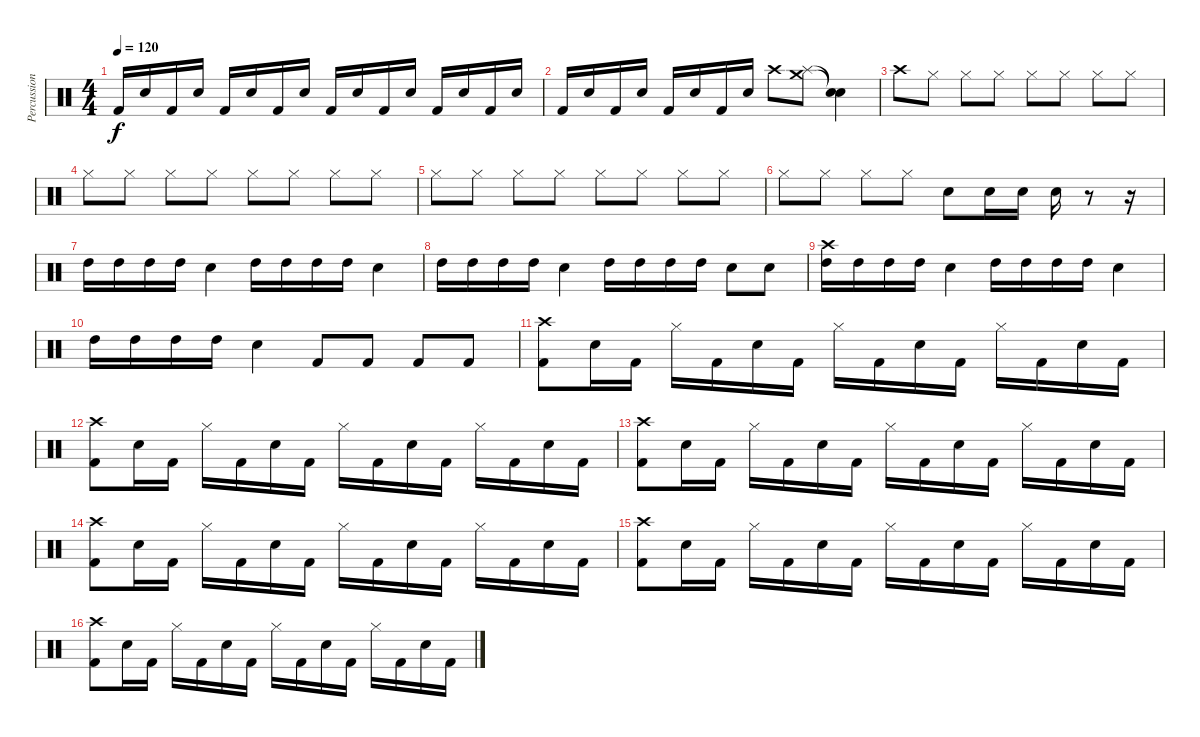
\track ("Percussion" "Percussion") {instrument percussion}
\staff {score}
\articulation defaults
\ts (4 4)
\tempo 120
\clef neutral
\ks c "Kick (hit) 2".16{dy f} "Snare (hit) 2".16 "Kick (hit) 2".16 "Snare (hit) 2".16 "Kick (hit) 2".16 "Snare (hit) 2".16 "Kick (hit) 2".16 "Snare (hit) 2".16 "Kick (hit) 2".16 "Snare (hit) 2".16 "Kick (hit) 2".16 "Snare (hit) 2".16 "Kick (hit) 2".16 "Snare (hit) 2".16 "Kick (hit) 2".16 "Snare (hit) 2".16
|
"Kick (hit) 2".16 "Snare (hit) 2".16 "Kick (hit) 2".16 "Snare (hit) 2".16 "Kick (hit) 2".16 "Snare (hit) 2".16 "Kick (hit) 2".16 "Snare (hit) 2".16 "Crash high (hit)".8 ("Splash (hit)" "Crash medium (hit)").8 ("Snare (hit)"{t} "Snare (hit)"{t}).4 |
"Crash high (hit)".8 "Hi-Hat (closed)".8 "Hi-Hat (closed)".8 "Hi-Hat (closed)".8 "Hi-Hat (closed)".8 "Hi-Hat (closed)".8 "Hi-Hat (closed)".8 "Hi-Hat (closed)".8 |
"Hi-Hat (closed)".8 "Hi-Hat (closed)".8 "Hi-Hat (closed)".8 "Hi-Hat (closed)".8 "Hi-Hat (closed)".8 "Hi-Hat (closed)".8 "Hi-Hat (closed)".8 "Hi-Hat (closed)".8 |
"Hi-Hat (closed)".8 "Hi-Hat (closed)".8 "Hi-Hat (closed)".8 "Hi-Hat (closed)".8 "Hi-Hat (closed)".8 "Hi-Hat (closed)".8 "Hi-Hat (closed)".8 "Hi-Hat (closed)".8 |
"Hi-Hat (closed)".8 "Hi-Hat (closed)".8 "Hi-Hat (closed)".8 "Hi-Hat (closed)".8 "Snare (hit) 2".8 "Snare (hit) 2".16 "Snare (hit) 2".16 "Snare (hit) 2".16 r.8 r.16 |
"High Tom (hit)".16 "High Tom (hit)".16 "High Tom (hit)".16 "High Tom (hit)".16 "Snare (hit) 2".4 "High Tom (hit)".16 "High Tom (hit)".16 "High Tom (hit)".16 "High Tom (hit)".16 "Snare (hit) 2".4 |
"High Tom (hit)".16 "High Tom (hit)".16 "High Tom (hit)".16 "High Tom (hit)".16 "Snare (hit) 2".4 "High Tom (hit)".16 "High Tom (hit)".16 "High Tom (hit)".16 "High Tom (hit)".16 "Snare (hit) 2".8 "Snare (hit) 2".8 |
("Crash high (hit)" "High Tom (hit)").16 "High Tom (hit)".16 "High Tom (hit)".16 "High Tom (hit)".16 "Snare (hit) 2".4 "High Tom (hit)".16 "High Tom (hit)".16 "High Tom (hit)".16 "High Tom (hit)".16 "Snare (hit) 2".4 |
"High Tom (hit)".16 "High Tom (hit)".16 "High Tom (hit)".16 "High Tom (hit)".16 "Snare (hit) 2".4 "Kick (hit) 2".8 "Kick (hit) 2".8 "Kick (hit) 2".8 "Kick (hit) 2".8 |
("Crash high (hit)" "Kick (hit) 2").8 "Snare (hit) 2".16 "Kick (hit) 2".16 "Hi-Hat (closed)".16 "Kick (hit) 2".16 "Snare (hit) 2".16 "Kick (hit) 2".16 "Hi-Hat (closed)".16 "Kick (hit) 2".16 "Snare (hit) 2".16 "Kick (hit) 2".16 "Hi-Hat (closed)".16 "Kick (hit) 2".16 "Snare (hit) 2".16 "Kick (hit) 2".16 |
("Crash high (hit)" "Kick (hit) 2").8 "Snare (hit) 2".16 "Kick (hit) 2".16 "Hi-Hat (closed)".16 "Kick (hit) 2".16 "Snare (hit) 2".16 "Kick (hit) 2".16 "Hi-Hat (closed)".16 "Kick (hit) 2".16 "Snare (hit) 2".16 "Kick (hit) 2".16 "Hi-Hat (closed)".16 "Kick (hit) 2".16 "Snare (hit) 2".16 "Kick (hit) 2".16 |
("Crash high (hit)" "Kick (hit) 2").8 "Snare (hit) 2".16 "Kick (hit) 2".16 "Hi-Hat (closed)".16 "Kick (hit) 2".16 "Snare (hit) 2".16 "Kick (hit) 2".16 "Hi-Hat (closed)".16 "Kick (hit) 2".16 "Snare (hit) 2".16 "Kick (hit) 2".16 "Hi-Hat (closed)".16 "Kick (hit) 2".16 "Snare (hit) 2".16 "Kick (hit) 2".16 |
("Crash high (hit)" "Kick (hit) 2").8 "Snare (hit) 2".16 "Kick (hit) 2".16 "Hi-Hat (closed)".16 "Kick (hit) 2".16 "Snare (hit) 2".16 "Kick (hit) 2".16 "Hi-Hat (closed)".16 "Kick (hit) 2".16 "Snare (hit) 2".16 "Kick (hit) 2".16 "Hi-Hat (closed)".16 "Kick (hit) 2".16 "Snare (hit) 2".16 "Kick (hit) 2".16 |
("Crash high (hit)" "Kick (hit) 2").8 "Snare (hit) 2".16 "Kick (hit) 2".16 "Hi-Hat (closed)".16 "Kick (hit) 2".16 "Snare (hit) 2".16 "Kick (hit) 2".16 "Hi-Hat (closed)".16 "Kick (hit) 2".16 "Snare (hit) 2".16 "Kick (hit) 2".16 "Hi-Hat (closed)".16 "Kick (hit) 2".16 "Snare (hit) 2".16 "Kick (hit) 2".16 |
("Crash high (hit)" "Kick (hit) 2").8 "Snare (hit) 2".16 "Kick (hit) 2".16 "Hi-Hat (closed)".16 "Kick (hit) 2".16 "Snare (hit) 2".16 "Kick (hit) 2".16 "Hi-Hat (closed)".16 "Kick (hit) 2".16 "Snare (hit) 2".16 "Kick (hit) 2".16 "Hi-Hat (closed)".16 "Kick (hit) 2".16 "Snare (hit) 2".16 "Kick (hit) 2".16
